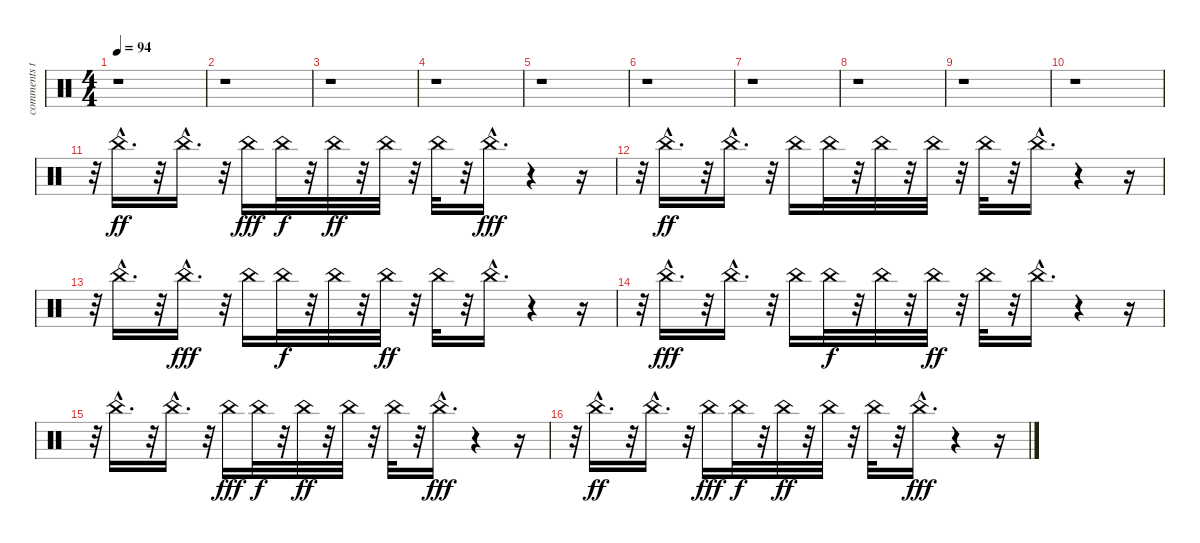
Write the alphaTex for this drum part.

\track ("comments to:" "comments t") {instrument percussion}
\staff {score}
\articulation defaults
\ts (4 4)
\tempo 94
\clef neutral
\ks c
r.1{dy fff} |
r.1 |
r.1 |
r.1 |
r.1 |
r.1 |
r.1 |
r.1 |
r.1 |
r.1 |
r.32 "China (choke)"{hac}.16{d dy ff volume 6} r.32 "China (choke)"{hac}.16{d} r.32 "China (choke)".16{dy fff} "China (choke)".32{dy f} r.32 "China (choke)".32{dy ff} r.32 "China (choke)".32 r.32 "China (choke)".32 r.32 "China (choke)"{hac}.16{d dy fff} r.4 r.16 |
r.32 "China (choke)"{hac}.16{d dy ff} r.32 "China (choke)"{hac}.16{d} r.32 "China (choke)".16 "China (choke)".32 r.32 "China (choke)".32 r.32 "China (choke)".32 r.32 "China (choke)".32 r.32 "China (choke)"{hac}.16{d} r.4 r.16 |
r.32 "China (choke)"{hac}.16{d} r.32 "China (choke)"{hac}.16{d dy fff} r.32 "China (choke)".16 "China (choke)".32{dy f} r.32 "China (choke)".32 r.32 "China (choke)".32{dy ff} r.32 "China (choke)".32 r.32 "China (choke)"{hac}.16{d} r.4 r.16 |
r.32 "China (choke)"{hac}.16{d dy fff} r.32 "China (choke)"{hac}.16{d} r.32 "China (choke)".16 "China (choke)".32{dy f} r.32 "China (choke)".32 r.32 "China (choke)".32{dy ff} r.32 "China (choke)".32 r.32 "China (choke)"{hac}.16{d} r.4 r.16 |
r.32 "China (choke)"{hac}.16{d} r.32 "China (choke)"{hac}.16{d} r.32 "China (choke)".16{dy fff} "China (choke)".32{dy f} r.32 "China (choke)".32{dy ff} r.32 "China (choke)".32 r.32 "China (choke)".32 r.32 "China (choke)"{hac}.16{d dy fff} r.4 r.16 |
r.32 "China (choke)"{hac}.16{d dy ff} r.32 "China (choke)"{hac}.16{d} r.32 "China (choke)".16{dy fff} "China (choke)".32{dy f} r.32 "China (choke)".32{dy ff} r.32 "China (choke)".32 r.32 "China (choke)".32 r.32 "China (choke)"{hac}.16{d dy fff} r.4 r.16
